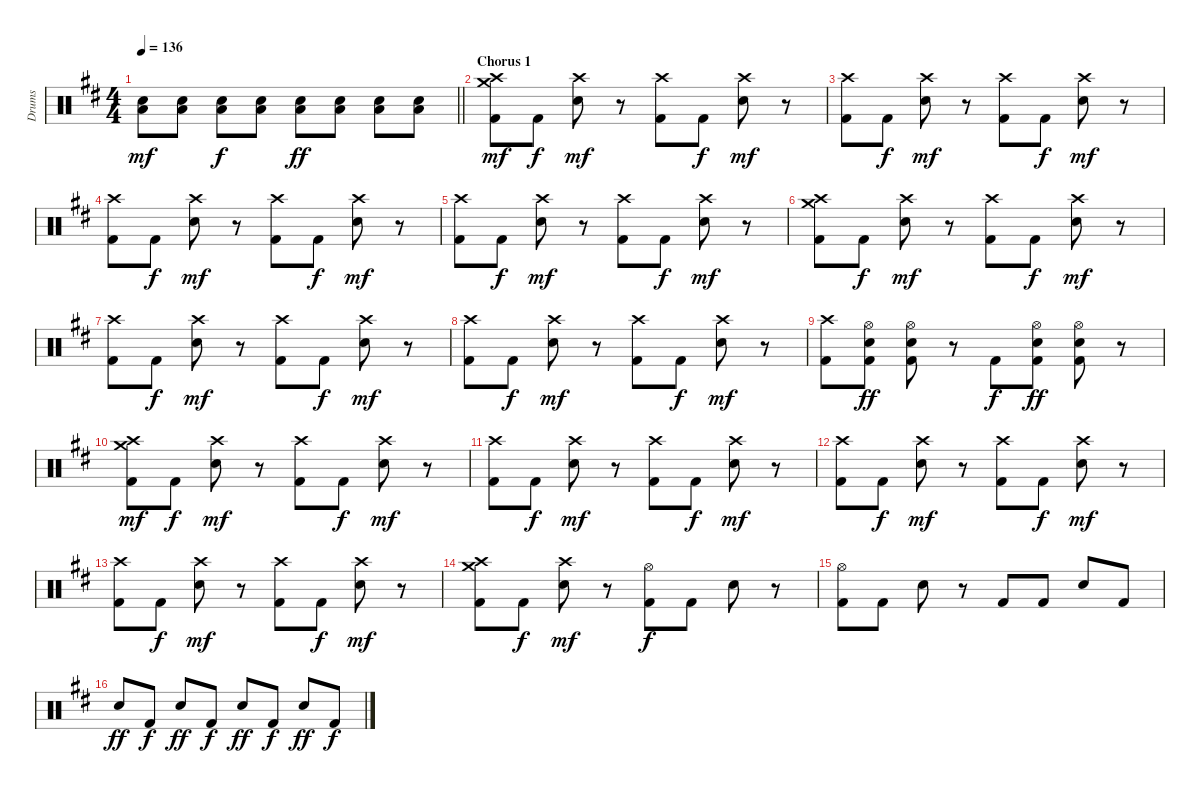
\track ("Drums" "Drums") {instrument percussion}
\staff {score}
\articulation defaults
\ts (4 4)
\tempo 136
\clef neutral
\barLineRight lightlight
\ks d
("Low Tom (hit)" "Electric Snare (hit)").8{dy mf} ("Low Tom (hit)" "Electric Snare (hit)").8 ("Low Tom (hit)" "Electric Snare (hit)").8{dy f} ("Low Tom (hit)" "Electric Snare (hit)").8 ("Low Tom (hit)" "Electric Snare (hit)").8{dy ff} ("Low Tom (hit)" "Electric Snare (hit)").8 ("Low Tom (hit)" "Electric Snare (hit)").8 ("Low Tom (hit)" "Electric Snare (hit)").8 |
\section ("" "Chorus 1")
("Crash medium (hit)" "Crash high (hit)" "Kick (hit) 2").8{dy mf} "Kick (hit) 2".8{dy f} ("Crash high (hit)" "Electric Snare (hit)").8{dy mf} r.8 ("Crash high (hit)" "Kick (hit) 2").8 "Kick (hit) 2".8{dy f} ("Crash high (hit)" "Electric Snare (hit)").8{dy mf} r.8 |
("Crash high (hit)" "Kick (hit) 2").8 "Kick (hit) 2".8{dy f} ("Crash high (hit)" "Electric Snare (hit)").8{dy mf} r.8 ("Crash high (hit)" "Kick (hit) 2").8 "Kick (hit) 2".8{dy f} ("Crash high (hit)" "Electric Snare (hit)").8{dy mf} r.8 |
("Crash high (hit)" "Kick (hit) 2").8 "Kick (hit) 2".8{dy f} ("Crash high (hit)" "Electric Snare (hit)").8{dy mf} r.8 ("Crash high (hit)" "Kick (hit) 2").8 "Kick (hit) 2".8{dy f} ("Crash high (hit)" "Electric Snare (hit)").8{dy mf} r.8 |
("Crash high (hit)" "Kick (hit) 2").8 "Kick (hit) 2".8{dy f} ("Crash high (hit)" "Electric Snare (hit)").8{dy mf} r.8 ("Crash high (hit)" "Kick (hit) 2").8 "Kick (hit) 2".8{dy f} ("Crash high (hit)" "Electric Snare (hit)").8{dy mf} r.8 |
("Crash medium (hit)" "Crash high (hit)" "Kick (hit) 2").8 "Kick (hit) 2".8{dy f} ("Crash high (hit)" "Electric Snare (hit)").8{dy mf} r.8 ("Crash high (hit)" "Kick (hit) 2").8 "Kick (hit) 2".8{dy f} ("Crash high (hit)" "Electric Snare (hit)").8{dy mf} r.8 |
("Crash high (hit)" "Kick (hit) 2").8 "Kick (hit) 2".8{dy f} ("Crash high (hit)" "Electric Snare (hit)").8{dy mf} r.8 ("Crash high (hit)" "Kick (hit) 2").8 "Kick (hit) 2".8{dy f} ("Crash high (hit)" "Electric Snare (hit)").8{dy mf} r.8 |
("Crash high (hit)" "Kick (hit) 2").8 "Kick (hit) 2".8{dy f} ("Crash high (hit)" "Electric Snare (hit)").8{dy mf} r.8 ("Crash high (hit)" "Kick (hit) 2").8 "Kick (hit) 2".8{dy f} ("Crash high (hit)" "Electric Snare (hit)").8{dy mf} r.8 |
("Crash high (hit)" "Kick (hit) 2").8 ("Hi-Hat (open)" "Electric Snare (hit)" "Kick (hit) 2").8{dy ff} ("Hi-Hat (open)" "Electric Snare (hit)" "Kick (hit) 2").8 r.8 "Kick (hit) 2".8{dy f} ("Hi-Hat (open)" "Electric Snare (hit)" "Kick (hit) 2").8{dy ff} ("Hi-Hat (open)" "Electric Snare (hit)" "Kick (hit) 2").8 r.8 |
("Crash medium (hit)" "Crash high (hit)" "Kick (hit) 2").8{dy mf} "Kick (hit) 2".8{dy f} ("Crash high (hit)" "Electric Snare (hit)").8{dy mf} r.8 ("Crash high (hit)" "Kick (hit) 2").8 "Kick (hit) 2".8{dy f} ("Crash high (hit)" "Electric Snare (hit)").8{dy mf} r.8 |
("Crash high (hit)" "Kick (hit) 2").8 "Kick (hit) 2".8{dy f} ("Crash high (hit)" "Electric Snare (hit)").8{dy mf} r.8 ("Crash high (hit)" "Kick (hit) 2").8 "Kick (hit) 2".8{dy f} ("Crash high (hit)" "Electric Snare (hit)").8{dy mf} r.8 |
("Crash high (hit)" "Kick (hit) 2").8 "Kick (hit) 2".8{dy f} ("Crash high (hit)" "Electric Snare (hit)").8{dy mf} r.8 ("Crash high (hit)" "Kick (hit) 2").8 "Kick (hit) 2".8{dy f} ("Crash high (hit)" "Electric Snare (hit)").8{dy mf} r.8 |
("Crash high (hit)" "Kick (hit) 2").8 "Kick (hit) 2".8{dy f} ("Crash high (hit)" "Electric Snare (hit)").8{dy mf} r.8 ("Crash high (hit)" "Kick (hit) 2").8 "Kick (hit) 2".8{dy f} ("Crash high (hit)" "Electric Snare (hit)").8{dy mf} r.8 |
("Crash medium (hit)" "Crash high (hit)" "Kick (hit) 2").8 "Kick (hit) 2".8{dy f} ("Crash high (hit)" "Electric Snare (hit)").8{dy mf} r.8 ("Hi-Hat (open)" "Kick (hit) 2").8{dy f} "Kick (hit) 2".8 "Electric Snare (hit)".8 r.8 |
("Hi-Hat (open)" "Kick (hit) 2").8 "Kick (hit) 2".8 "Electric Snare (hit)".8 r.8 "Kick (hit) 2".8 "Kick (hit) 2".8 "Electric Snare (hit)".8 "Kick (hit) 2".8 |
"Electric Snare (hit)".8{dy ff} "Kick (hit) 2".8{dy f} "Electric Snare (hit)".8{dy ff} "Kick (hit) 2".8{dy f} "Electric Snare (hit)".8{dy ff} "Kick (hit) 2".8{dy f} "Electric Snare (hit)".8{dy ff} "Kick (hit) 2".8{dy f}
